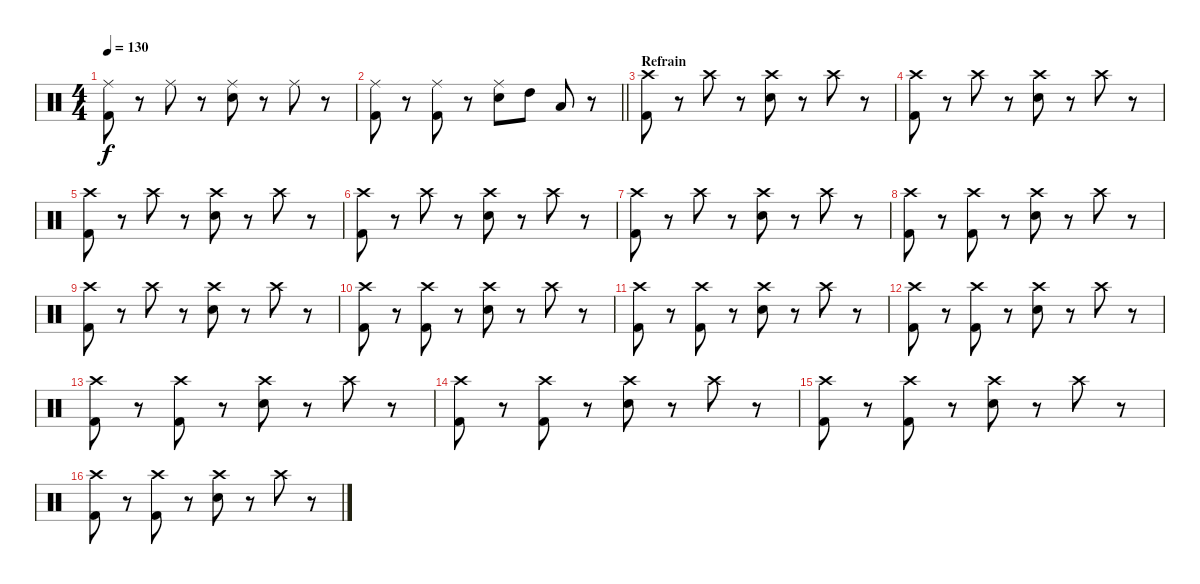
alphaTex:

\track "" {instrument percussion}
\staff {score}
\articulation defaults
\ts (4 4)
\tempo 130
\clef neutral
\ks c
("Ride (middle)" "Kick (hit) 2").8{dy f} r.8 "Ride (middle)".8 r.8 ("Ride (middle)" "Electric Snare (hit)").8 r.8 "Ride (middle)".8 r.8 |
\barLineRight lightlight
("Ride (middle)" "Kick (hit) 2").8 r.8 ("Ride (middle)" "Kick (hit) 2").8 r.8 ("Ride (middle)" "Electric Snare (hit)").8 "High Tom (hit)".8 "Low Tom (hit)".8 r.8 |
\section ("" "Refrain")
("Crash high (hit)" "Kick (hit) 2").8 r.8 "Crash high (hit)".8 r.8 ("Crash high (hit)" "Electric Snare (hit)").8 r.8 "Crash high (hit)".8 r.8 |
("Crash high (hit)" "Kick (hit) 2").8 r.8 "Crash high (hit)".8 r.8 ("Crash high (hit)" "Electric Snare (hit)").8 r.8 "Crash high (hit)".8 r.8 |
("Crash high (hit)" "Kick (hit) 2").8 r.8 "Crash high (hit)".8 r.8 ("Crash high (hit)" "Electric Snare (hit)").8 r.8 "Crash high (hit)".8 r.8 |
("Crash high (hit)" "Kick (hit) 2").8 r.8 "Crash high (hit)".8 r.8 ("Crash high (hit)" "Electric Snare (hit)").8 r.8 "Crash high (hit)".8 r.8 |
("Crash high (hit)" "Kick (hit) 2").8 r.8 "Crash high (hit)".8 r.8 ("Crash high (hit)" "Electric Snare (hit)").8 r.8 "Crash high (hit)".8 r.8 |
("Crash high (hit)" "Kick (hit) 2").8 r.8 ("Crash high (hit)" "Kick (hit) 2").8 r.8 ("Crash high (hit)" "Electric Snare (hit)").8 r.8 "Crash high (hit)".8 r.8 |
("Crash high (hit)" "Kick (hit) 2").8 r.8 "Crash high (hit)".8 r.8 ("Crash high (hit)" "Electric Snare (hit)").8 r.8 "Crash high (hit)".8 r.8 |
("Crash high (hit)" "Kick (hit) 2").8 r.8 ("Crash high (hit)" "Kick (hit) 2").8 r.8 ("Crash high (hit)" "Electric Snare (hit)").8 r.8 "Crash high (hit)".8 r.8 |
("Crash high (hit)" "Kick (hit) 2").8 r.8 ("Crash high (hit)" "Kick (hit) 2").8 r.8 ("Crash high (hit)" "Electric Snare (hit)").8 r.8 "Crash high (hit)".8 r.8 |
("Crash high (hit)" "Kick (hit) 2").8 r.8 ("Crash high (hit)" "Kick (hit) 2").8 r.8 ("Crash high (hit)" "Electric Snare (hit)").8 r.8 "Crash high (hit)".8 r.8 |
("Crash high (hit)" "Kick (hit) 2").8 r.8 ("Crash high (hit)" "Kick (hit) 2").8 r.8 ("Crash high (hit)" "Electric Snare (hit)").8 r.8 "Crash high (hit)".8 r.8 |
("Crash high (hit)" "Kick (hit) 2").8 r.8 ("Crash high (hit)" "Kick (hit) 2").8 r.8 ("Crash high (hit)" "Electric Snare (hit)").8 r.8 "Crash high (hit)".8 r.8 |
("Crash high (hit)" "Kick (hit) 2").8 r.8 ("Crash high (hit)" "Kick (hit) 2").8 r.8 ("Crash high (hit)" "Electric Snare (hit)").8 r.8 "Crash high (hit)".8 r.8 |
("Crash high (hit)" "Kick (hit) 2").8 r.8 ("Crash high (hit)" "Kick (hit) 2").8 r.8 ("Crash high (hit)" "Electric Snare (hit)").8 r.8 "Crash high (hit)".8 r.8
